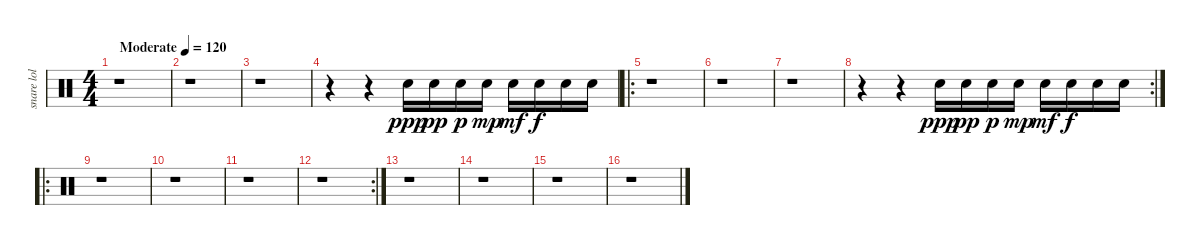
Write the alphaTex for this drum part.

\track ("snare lol lazy" "snare lol ") {instrument percussion}
\staff {score}
\articulation defaults
\ts (4 4)
\tempo (120 "Moderate")
\clef neutral
\ks c
r.1{dy ppp} |
r.1 |
r.1 |
r.4 r.4 "Snare (hit) 2".16 "Snare (hit) 2".16{dy pp} "Snare (hit) 2".16{dy p} "Snare (hit) 2".16{dy mp} "Snare (hit) 2".16{dy mf} "Snare (hit) 2".16{dy f} "Snare (hit) 2".16 "Snare (hit) 2".16 |
\ro
r.1 |
r.1 |
r.1 |
\rc 2
r.4 r.4 "Snare (hit) 2".16{dy ppp} "Snare (hit) 2".16{dy pp} "Snare (hit) 2".16{dy p} "Snare (hit) 2".16{dy mp} "Snare (hit) 2".16{dy mf} "Snare (hit) 2".16{dy f} "Snare (hit) 2".16 "Snare (hit) 2".16 |
\ro
r.1 |
r.1 |
r.1 |
\rc 2
r.1 |
r.1 |
r.1 |
r.1 |
r.1
